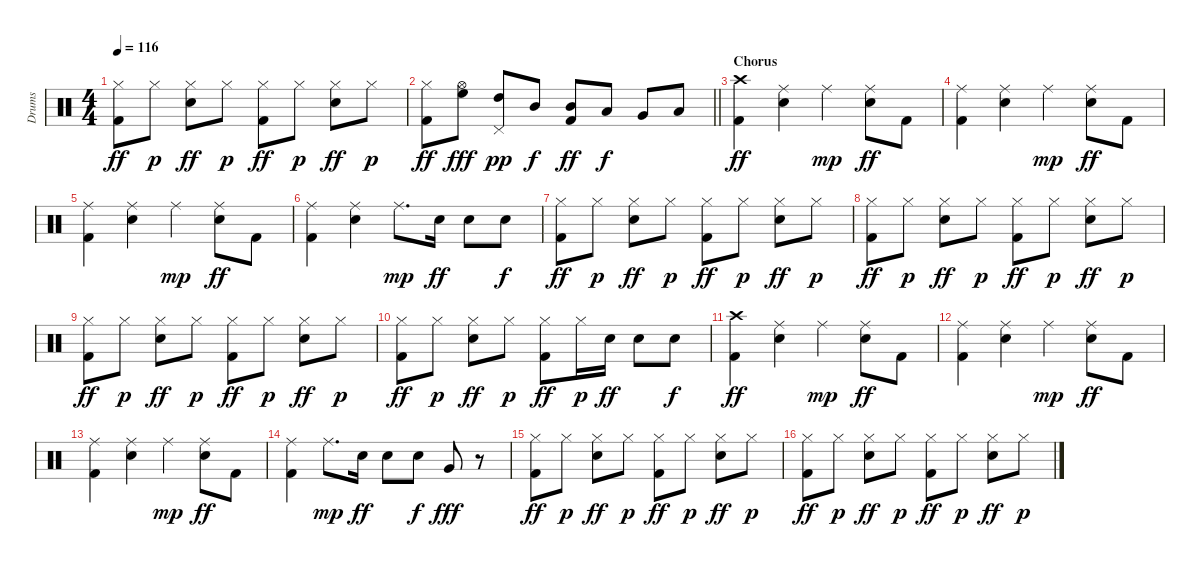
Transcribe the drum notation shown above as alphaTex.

\track ("Drums" "Drums") {instrument percussion}
\staff {score}
\articulation defaults
\ts (4 4)
\tempo 116
\clef neutral
\ks c
("Hi-Hat (closed)" "Kick (hit) 2").8{dy ff} "Hi-Hat (closed)".8{dy p} ("Hi-Hat (closed)" "Snare (hit) 2").8{dy ff} "Hi-Hat (closed)".8{dy p} ("Hi-Hat (closed)" "Kick (hit) 2").8{dy ff} "Hi-Hat (closed)".8{dy p} ("Hi-Hat (closed)" "Snare (hit) 2").8{dy ff} "Hi-Hat (closed)".8{dy p} |
\barLineRight lightlight
("Hi-Hat (closed)" "Kick (hit) 2").8{dy ff} ("Hi-Hat (open)" "High Floor Tom (hit)").8{dy fff} ("Pedal Hi-Hat (hit)" "High Tom (hit)").8{dy pp} "Mid Tom (hit)".8{dy f} ("Mid Tom (hit)" "Kick (hit) 2").8{dy ff} "Low Tom (hit)".8{dy f} "Very Low Tom (hit)".8 "Low Floor Tom (hit)".8 |
\section ("" "Chorus")
("Crash high (hit)" "Kick (hit) 2").4{dy ff} ("Ride (middle)" "Snare (hit) 2").4 "Ride (middle)".4{dy mp} ("Ride (middle)" "Snare (hit) 2").8{dy ff} "Kick (hit) 2".8 |
("Ride (middle)" "Kick (hit) 2").4 ("Ride (middle)" "Snare (hit) 2").4 "Ride (middle)".4{dy mp} ("Ride (middle)" "Snare (hit) 2").8{dy ff} "Kick (hit) 2".8 |
("Ride (middle)" "Kick (hit) 2").4 ("Ride (middle)" "Snare (hit) 2").4 "Ride (middle)".4{dy mp} ("Ride (middle)" "Snare (hit) 2").8{dy ff} "Kick (hit) 2".8 |
("Ride (middle)" "Kick (hit) 2").4 ("Ride (middle)" "Snare (hit) 2").4 "Ride (middle)".8{d dy mp} "Snare (hit) 2".16{dy ff} "Snare (hit) 2".8 "Snare (hit) 2".8{dy f} |
("Hi-Hat (closed)" "Kick (hit) 2").8{dy ff} "Hi-Hat (closed)".8{dy p} ("Hi-Hat (closed)" "Snare (hit) 2").8{dy ff} "Hi-Hat (closed)".8{dy p} ("Hi-Hat (closed)" "Kick (hit) 2").8{dy ff} "Hi-Hat (closed)".8{dy p} ("Hi-Hat (closed)" "Snare (hit) 2").8{dy ff} "Hi-Hat (closed)".8{dy p} |
("Hi-Hat (closed)" "Kick (hit) 2").8{dy ff} "Hi-Hat (closed)".8{dy p} ("Hi-Hat (closed)" "Snare (hit) 2").8{dy ff} "Hi-Hat (closed)".8{dy p} ("Hi-Hat (closed)" "Kick (hit) 2").8{dy ff} "Hi-Hat (closed)".8{dy p} ("Hi-Hat (closed)" "Snare (hit) 2").8{dy ff} "Hi-Hat (closed)".8{dy p} |
("Hi-Hat (closed)" "Kick (hit) 2").8{dy ff} "Hi-Hat (closed)".8{dy p} ("Hi-Hat (closed)" "Snare (hit) 2").8{dy ff} "Hi-Hat (closed)".8{dy p} ("Hi-Hat (closed)" "Kick (hit) 2").8{dy ff} "Hi-Hat (closed)".8{dy p} ("Hi-Hat (closed)" "Snare (hit) 2").8{dy ff} "Hi-Hat (closed)".8{dy p} |
("Hi-Hat (closed)" "Kick (hit) 2").8{dy ff} "Hi-Hat (closed)".8{dy p} ("Hi-Hat (closed)" "Snare (hit) 2").8{dy ff} "Hi-Hat (closed)".8{dy p} ("Hi-Hat (closed)" "Kick (hit) 2").8{dy ff} "Hi-Hat (closed)".16{dy p} "Snare (hit) 2".16{dy ff} "Snare (hit) 2".8 "Snare (hit) 2".8{dy f} |
("Crash high (hit)" "Kick (hit) 2").4{dy ff} ("Ride (middle)" "Snare (hit) 2").4 "Ride (middle)".4{dy mp} ("Ride (middle)" "Snare (hit) 2").8{dy ff} "Kick (hit) 2".8 |
("Ride (middle)" "Kick (hit) 2").4 ("Ride (middle)" "Snare (hit) 2").4 "Ride (middle)".4{dy mp} ("Ride (middle)" "Snare (hit) 2").8{dy ff} "Kick (hit) 2".8 |
("Ride (middle)" "Kick (hit) 2").4 ("Ride (middle)" "Snare (hit) 2").4 "Ride (middle)".4{dy mp} ("Ride (middle)" "Snare (hit) 2").8{dy ff} "Kick (hit) 2".8 |
("Ride (middle)" "Kick (hit) 2").4 "Ride (middle)".8{d dy mp} "Snare (hit) 2".16{dy ff} "Snare (hit) 2".8 "Snare (hit) 2".8{dy f} "Very Low Tom (hit)".8{dy fff} r.8 |
("Hi-Hat (closed)" "Kick (hit) 2").8{dy ff} "Hi-Hat (closed)".8{dy p} ("Hi-Hat (closed)" "Snare (hit) 2").8{dy ff} "Hi-Hat (closed)".8{dy p} ("Hi-Hat (closed)" "Kick (hit) 2").8{dy ff} "Hi-Hat (closed)".8{dy p} ("Hi-Hat (closed)" "Snare (hit) 2").8{dy ff} "Hi-Hat (closed)".8{dy p} |
("Hi-Hat (closed)" "Kick (hit) 2").8{dy ff} "Hi-Hat (closed)".8{dy p} ("Hi-Hat (closed)" "Snare (hit) 2").8{dy ff} "Hi-Hat (closed)".8{dy p} ("Hi-Hat (closed)" "Kick (hit) 2").8{dy ff} "Hi-Hat (closed)".8{dy p} ("Hi-Hat (closed)" "Snare (hit) 2").8{dy ff} "Hi-Hat (closed)".8{dy p}
